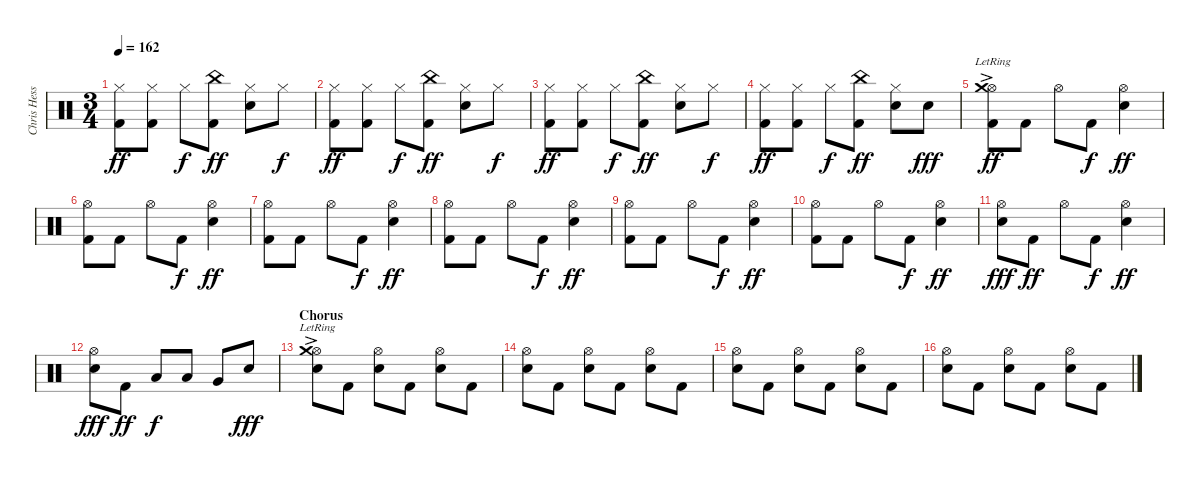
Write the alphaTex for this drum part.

\track ("Chris Hesse" "Chris Hess") {instrument percussion}
\staff {score}
\articulation defaults
\ts (3 4)
\tempo 162
\clef neutral
\ks c
("Hi-Hat (closed)" "Kick (hit) 2").8{dy ff} ("Hi-Hat (closed)" "Kick (hit) 2").8 "Hi-Hat (closed)".8{dy f} ("China (hit)" "Kick (hit) 2").8{dy ff} ("Hi-Hat (closed)" "Snare (hit) 2").8 "Hi-Hat (closed)".8{dy f} |
("Hi-Hat (closed)" "Kick (hit) 2").8{dy ff} ("Hi-Hat (closed)" "Kick (hit) 2").8 "Hi-Hat (closed)".8{dy f} ("China (hit)" "Kick (hit) 2").8{dy ff} ("Hi-Hat (closed)" "Snare (hit) 2").8 "Hi-Hat (closed)".8{dy f} |
("Hi-Hat (closed)" "Kick (hit) 2").8{dy ff} ("Hi-Hat (closed)" "Kick (hit) 2").8 "Hi-Hat (closed)".8{dy f} ("China (hit)" "Kick (hit) 2").8{dy ff} ("Hi-Hat (closed)" "Snare (hit) 2").8 "Hi-Hat (closed)".8{dy f} |
("Hi-Hat (closed)" "Kick (hit) 2").8{dy ff} ("Hi-Hat (closed)" "Kick (hit) 2").8 "Hi-Hat (closed)".8{dy f} ("China (hit)" "Kick (hit) 2").8{dy ff} ("Hi-Hat (closed)" "Snare (hit) 2").8 "Snare (hit) 2".8{dy fff} |
("Hi-Hat (open)" "Crash medium (hit)"{ac lr} "Kick (hit) 2").8{dy ff} "Kick (hit) 2".8 "Hi-Hat (open)".8 "Kick (hit) 2".8{dy f} ("Hi-Hat (open)" "Snare (hit) 2").4{dy ff} |
("Hi-Hat (open)" "Kick (hit) 2").8 "Kick (hit) 2".8 "Hi-Hat (open)".8 "Kick (hit) 2".8{dy f} ("Hi-Hat (open)" "Snare (hit) 2").4{dy ff} |
("Hi-Hat (open)" "Kick (hit) 2").8 "Kick (hit) 2".8 "Hi-Hat (open)".8 "Kick (hit) 2".8{dy f} ("Hi-Hat (open)" "Snare (hit) 2").4{dy ff} |
("Hi-Hat (open)" "Kick (hit) 2").8 "Kick (hit) 2".8 "Hi-Hat (open)".8 "Kick (hit) 2".8{dy f} ("Hi-Hat (open)" "Snare (hit) 2").4{dy ff} |
("Hi-Hat (open)" "Kick (hit) 2").8 "Kick (hit) 2".8 "Hi-Hat (open)".8 "Kick (hit) 2".8{dy f} ("Hi-Hat (open)" "Snare (hit) 2").4{dy ff} |
("Hi-Hat (open)" "Kick (hit) 2").8 "Kick (hit) 2".8 "Hi-Hat (open)".8 "Kick (hit) 2".8{dy f} ("Hi-Hat (open)" "Snare (hit) 2").4{dy ff} |
("Hi-Hat (open)" "Snare (hit) 2").8{dy fff} "Kick (hit) 2".8{dy ff} "Hi-Hat (open)".8 "Kick (hit) 2".8{dy f} ("Hi-Hat (open)" "Snare (hit) 2").4{dy ff} |
("Hi-Hat (open)" "Snare (hit) 2").8{dy fff} "Kick (hit) 2".8{dy ff} "Low Floor Tom (hit)".8{dy f} "Low Tom (hit)".8 "Very Low Tom (hit)".8 "Snare (hit) 2".8{dy fff} |
\section ("" "Chorus")
("Hi-Hat (open)" "Crash medium (hit)"{ac lr} "Snare (hit) 2").8 "Kick (hit) 2".8 ("Hi-Hat (open)" "Snare (hit) 2").8 "Kick (hit) 2".8 ("Hi-Hat (open)" "Snare (hit) 2").8 "Kick (hit) 2".8 |
("Hi-Hat (open)" "Snare (hit) 2").8 "Kick (hit) 2".8 ("Hi-Hat (open)" "Snare (hit) 2").8 "Kick (hit) 2".8 ("Hi-Hat (open)" "Snare (hit) 2").8 "Kick (hit) 2".8 |
("Hi-Hat (open)" "Snare (hit) 2").8 "Kick (hit) 2".8 ("Hi-Hat (open)" "Snare (hit) 2").8 "Kick (hit) 2".8 ("Hi-Hat (open)" "Snare (hit) 2").8 "Kick (hit) 2".8 |
("Hi-Hat (open)" "Snare (hit) 2").8 "Kick (hit) 2".8 ("Hi-Hat (open)" "Snare (hit) 2").8 "Kick (hit) 2".8 ("Hi-Hat (open)" "Snare (hit) 2").8 "Kick (hit) 2".8
